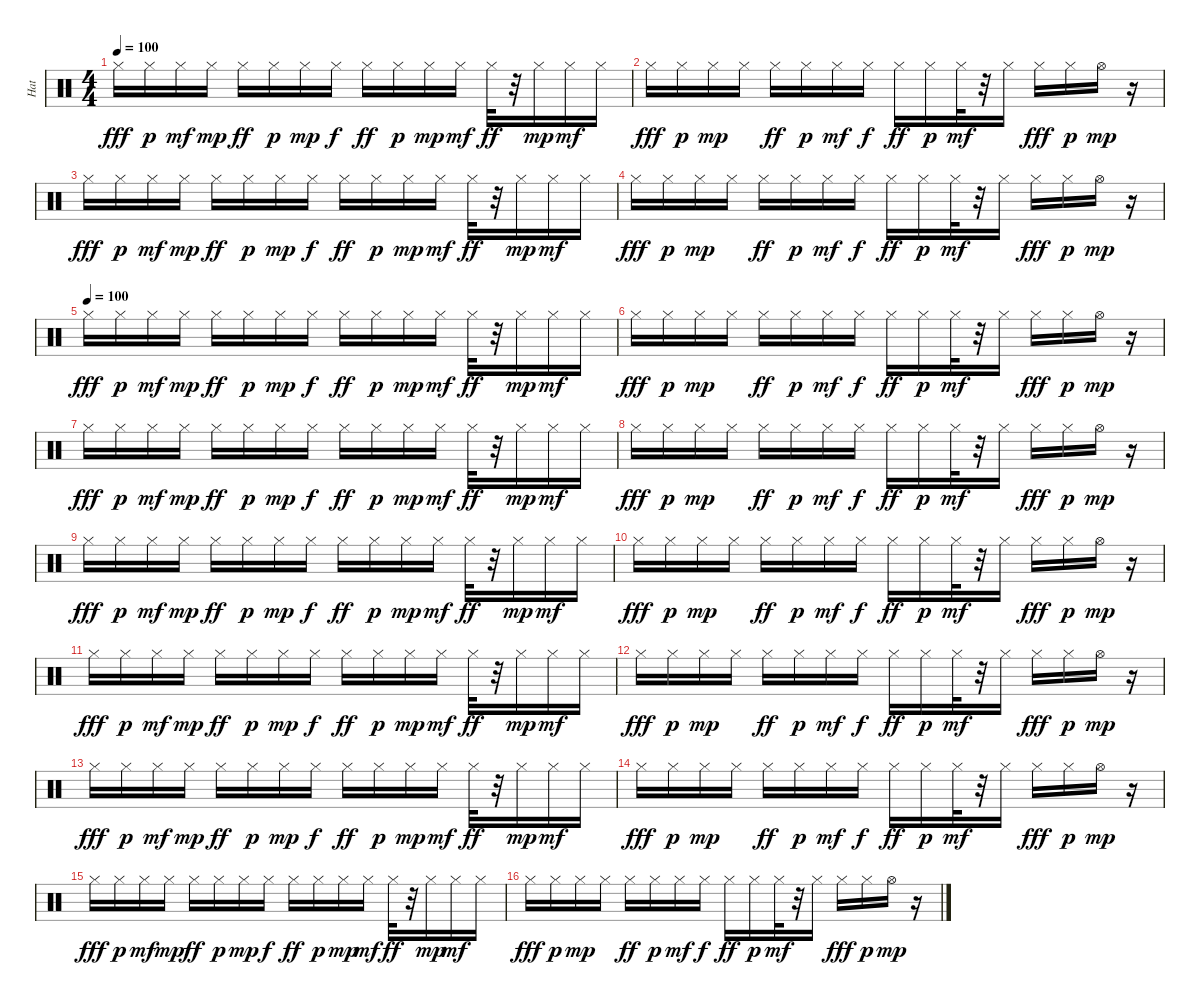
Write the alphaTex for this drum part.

\track ("Hat" "Hat") {instrument percussion}
\staff {score}
\articulation defaults
\ts (4 4)
\tempo 100
\clef neutral
\ks c "Hi-Hat (closed)".16{dy fff} "Hi-Hat (closed)".16{dy p} "Hi-Hat (closed)".16{dy mf} "Hi-Hat (closed)".16{dy mp} "Hi-Hat (closed)".16{dy ff} "Hi-Hat (closed)".16{dy p} "Hi-Hat (closed)".16{dy mp} "Hi-Hat (closed)".16{dy f} "Hi-Hat (closed)".16{dy ff} "Hi-Hat (closed)".16{dy p} "Hi-Hat (closed)".16{dy mp} "Hi-Hat (closed)".16{dy mf} "Hi-Hat (closed)".32{dy ff}
r.32 "Hi-Hat (closed)".16{dy mp} "Hi-Hat (closed)".16{dy mf} "Hi-Hat (closed)".16 |
"Hi-Hat (closed)".16{dy fff} "Hi-Hat (closed)".16{dy p} "Hi-Hat (closed)".16{dy mp} "Hi-Hat (closed)".16 "Hi-Hat (closed)".16{dy ff} "Hi-Hat (closed)".16{dy p} "Hi-Hat (closed)".16{dy mf} "Hi-Hat (closed)".16{dy f} "Hi-Hat (closed)".16{dy ff} "Hi-Hat (closed)".16{dy p} "Hi-Hat (closed)".32{dy mf} r.32 "Hi-Hat (closed)".16 "Hi-Hat (closed)".16{dy fff} "Hi-Hat (closed)".16{dy p} "Hi-Hat (open)".16{dy mp} r.16 |
"Hi-Hat (closed)".16{dy fff} "Hi-Hat (closed)".16{dy p} "Hi-Hat (closed)".16{dy mf} "Hi-Hat (closed)".16{dy mp} "Hi-Hat (closed)".16{dy ff} "Hi-Hat (closed)".16{dy p} "Hi-Hat (closed)".16{dy mp} "Hi-Hat (closed)".16{dy f} "Hi-Hat (closed)".16{dy ff} "Hi-Hat (closed)".16{dy p} "Hi-Hat (closed)".16{dy mp} "Hi-Hat (closed)".16{dy mf} "Hi-Hat (closed)".32{dy ff} r.32 "Hi-Hat (closed)".16{dy mp} "Hi-Hat (closed)".16{dy mf} "Hi-Hat (closed)".16 |
"Hi-Hat (closed)".16{dy fff} "Hi-Hat (closed)".16{dy p} "Hi-Hat (closed)".16{dy mp} "Hi-Hat (closed)".16 "Hi-Hat (closed)".16{dy ff} "Hi-Hat (closed)".16{dy p} "Hi-Hat (closed)".16{dy mf} "Hi-Hat (closed)".16{dy f} "Hi-Hat (closed)".16{dy ff} "Hi-Hat (closed)".16{dy p} "Hi-Hat (closed)".32{dy mf} r.32 "Hi-Hat (closed)".16 "Hi-Hat (closed)".16{dy fff} "Hi-Hat (closed)".16{dy p} "Hi-Hat (open)".16{dy mp} r.16 |
\tempo (100)
"Hi-Hat (closed)".16{dy fff} "Hi-Hat (closed)".16{dy p} "Hi-Hat (closed)".16{dy mf} "Hi-Hat (closed)".16{dy mp} "Hi-Hat (closed)".16{dy ff} "Hi-Hat (closed)".16{dy p} "Hi-Hat (closed)".16{dy mp} "Hi-Hat (closed)".16{dy f} "Hi-Hat (closed)".16{dy ff} "Hi-Hat (closed)".16{dy p} "Hi-Hat (closed)".16{dy mp} "Hi-Hat (closed)".16{dy mf} "Hi-Hat (closed)".32{dy ff} r.32 "Hi-Hat (closed)".16{dy mp} "Hi-Hat (closed)".16{dy mf} "Hi-Hat (closed)".16 |
"Hi-Hat (closed)".16{dy fff} "Hi-Hat (closed)".16{dy p} "Hi-Hat (closed)".16{dy mp} "Hi-Hat (closed)".16 "Hi-Hat (closed)".16{dy ff} "Hi-Hat (closed)".16{dy p} "Hi-Hat (closed)".16{dy mf} "Hi-Hat (closed)".16{dy f} "Hi-Hat (closed)".16{dy ff} "Hi-Hat (closed)".16{dy p} "Hi-Hat (closed)".32{dy mf} r.32 "Hi-Hat (closed)".16 "Hi-Hat (closed)".16{dy fff} "Hi-Hat (closed)".16{dy p} "Hi-Hat (open)".16{dy mp} r.16 |
"Hi-Hat (closed)".16{dy fff} "Hi-Hat (closed)".16{dy p} "Hi-Hat (closed)".16{dy mf} "Hi-Hat (closed)".16{dy mp} "Hi-Hat (closed)".16{dy ff} "Hi-Hat (closed)".16{dy p} "Hi-Hat (closed)".16{dy mp} "Hi-Hat (closed)".16{dy f} "Hi-Hat (closed)".16{dy ff} "Hi-Hat (closed)".16{dy p} "Hi-Hat (closed)".16{dy mp} "Hi-Hat (closed)".16{dy mf} "Hi-Hat (closed)".32{dy ff} r.32 "Hi-Hat (closed)".16{dy mp} "Hi-Hat (closed)".16{dy mf} "Hi-Hat (closed)".16 |
"Hi-Hat (closed)".16{dy fff} "Hi-Hat (closed)".16{dy p} "Hi-Hat (closed)".16{dy mp} "Hi-Hat (closed)".16 "Hi-Hat (closed)".16{dy ff} "Hi-Hat (closed)".16{dy p} "Hi-Hat (closed)".16{dy mf} "Hi-Hat (closed)".16{dy f} "Hi-Hat (closed)".16{dy ff} "Hi-Hat (closed)".16{dy p} "Hi-Hat (closed)".32{dy mf} r.32 "Hi-Hat (closed)".16 "Hi-Hat (closed)".16{dy fff} "Hi-Hat (closed)".16{dy p} "Hi-Hat (open)".16{dy mp} r.16 |
"Hi-Hat (closed)".16{dy fff} "Hi-Hat (closed)".16{dy p} "Hi-Hat (closed)".16{dy mf} "Hi-Hat (closed)".16{dy mp} "Hi-Hat (closed)".16{dy ff} "Hi-Hat (closed)".16{dy p} "Hi-Hat (closed)".16{dy mp} "Hi-Hat (closed)".16{dy f} "Hi-Hat (closed)".16{dy ff} "Hi-Hat (closed)".16{dy p} "Hi-Hat (closed)".16{dy mp} "Hi-Hat (closed)".16{dy mf} "Hi-Hat (closed)".32{dy ff} r.32 "Hi-Hat (closed)".16{dy mp} "Hi-Hat (closed)".16{dy mf} "Hi-Hat (closed)".16 |
"Hi-Hat (closed)".16{dy fff} "Hi-Hat (closed)".16{dy p} "Hi-Hat (closed)".16{dy mp} "Hi-Hat (closed)".16 "Hi-Hat (closed)".16{dy ff} "Hi-Hat (closed)".16{dy p} "Hi-Hat (closed)".16{dy mf} "Hi-Hat (closed)".16{dy f} "Hi-Hat (closed)".16{dy ff} "Hi-Hat (closed)".16{dy p} "Hi-Hat (closed)".32{dy mf} r.32 "Hi-Hat (closed)".16 "Hi-Hat (closed)".16{dy fff} "Hi-Hat (closed)".16{dy p} "Hi-Hat (open)".16{dy mp} r.16 |
"Hi-Hat (closed)".16{dy fff} "Hi-Hat (closed)".16{dy p} "Hi-Hat (closed)".16{dy mf} "Hi-Hat (closed)".16{dy mp} "Hi-Hat (closed)".16{dy ff} "Hi-Hat (closed)".16{dy p} "Hi-Hat (closed)".16{dy mp} "Hi-Hat (closed)".16{dy f} "Hi-Hat (closed)".16{dy ff} "Hi-Hat (closed)".16{dy p} "Hi-Hat (closed)".16{dy mp} "Hi-Hat (closed)".16{dy mf} "Hi-Hat (closed)".32{dy ff} r.32 "Hi-Hat (closed)".16{dy mp} "Hi-Hat (closed)".16{dy mf} "Hi-Hat (closed)".16 |
"Hi-Hat (closed)".16{dy fff} "Hi-Hat (closed)".16{dy p} "Hi-Hat (closed)".16{dy mp} "Hi-Hat (closed)".16 "Hi-Hat (closed)".16{dy ff} "Hi-Hat (closed)".16{dy p} "Hi-Hat (closed)".16{dy mf} "Hi-Hat (closed)".16{dy f} "Hi-Hat (closed)".16{dy ff} "Hi-Hat (closed)".16{dy p} "Hi-Hat (closed)".32{dy mf} r.32 "Hi-Hat (closed)".16 "Hi-Hat (closed)".16{dy fff} "Hi-Hat (closed)".16{dy p} "Hi-Hat (open)".16{dy mp} r.16 |
"Hi-Hat (closed)".16{dy fff} "Hi-Hat (closed)".16{dy p} "Hi-Hat (closed)".16{dy mf} "Hi-Hat (closed)".16{dy mp} "Hi-Hat (closed)".16{dy ff} "Hi-Hat (closed)".16{dy p} "Hi-Hat (closed)".16{dy mp} "Hi-Hat (closed)".16{dy f} "Hi-Hat (closed)".16{dy ff} "Hi-Hat (closed)".16{dy p} "Hi-Hat (closed)".16{dy mp} "Hi-Hat (closed)".16{dy mf} "Hi-Hat (closed)".32{dy ff} r.32 "Hi-Hat (closed)".16{dy mp} "Hi-Hat (closed)".16{dy mf} "Hi-Hat (closed)".16 |
"Hi-Hat (closed)".16{dy fff} "Hi-Hat (closed)".16{dy p} "Hi-Hat (closed)".16{dy mp} "Hi-Hat (closed)".16 "Hi-Hat (closed)".16{dy ff} "Hi-Hat (closed)".16{dy p} "Hi-Hat (closed)".16{dy mf} "Hi-Hat (closed)".16{dy f} "Hi-Hat (closed)".16{dy ff} "Hi-Hat (closed)".16{dy p} "Hi-Hat (closed)".32{dy mf} r.32 "Hi-Hat (closed)".16 "Hi-Hat (closed)".16{dy fff} "Hi-Hat (closed)".16{dy p} "Hi-Hat (open)".16{dy mp} r.16 |
"Hi-Hat (closed)".16{dy fff} "Hi-Hat (closed)".16{dy p} "Hi-Hat (closed)".16{dy mf} "Hi-Hat (closed)".16{dy mp} "Hi-Hat (closed)".16{dy ff} "Hi-Hat (closed)".16{dy p} "Hi-Hat (closed)".16{dy mp} "Hi-Hat (closed)".16{dy f} "Hi-Hat (closed)".16{dy ff} "Hi-Hat (closed)".16{dy p} "Hi-Hat (closed)".16{dy mp} "Hi-Hat (closed)".16{dy mf} "Hi-Hat (closed)".32{dy ff} r.32 "Hi-Hat (closed)".16{dy mp} "Hi-Hat (closed)".16{dy mf} "Hi-Hat (closed)".16 |
"Hi-Hat (closed)".16{dy fff} "Hi-Hat (closed)".16{dy p} "Hi-Hat (closed)".16{dy mp} "Hi-Hat (closed)".16 "Hi-Hat (closed)".16{dy ff} "Hi-Hat (closed)".16{dy p} "Hi-Hat (closed)".16{dy mf} "Hi-Hat (closed)".16{dy f} "Hi-Hat (closed)".16{dy ff} "Hi-Hat (closed)".16{dy p} "Hi-Hat (closed)".32{dy mf} r.32 "Hi-Hat (closed)".16 "Hi-Hat (closed)".16{dy fff} "Hi-Hat (closed)".16{dy p} "Hi-Hat (open)".16{dy mp} r.16
